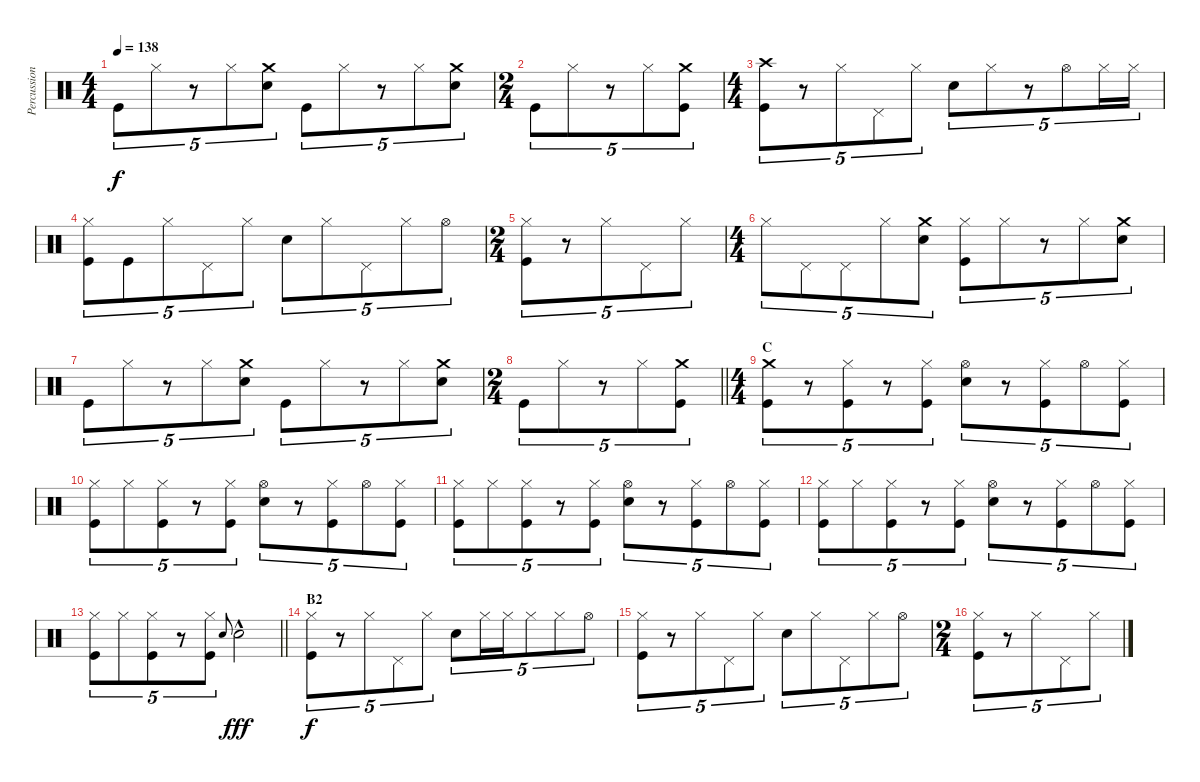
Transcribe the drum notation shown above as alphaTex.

\track ("Percussion" "Percussion") {instrument percussion}
\staff {score}
\articulation defaults
\ts (4 4)
\tempo 138
\clef neutral
\ks c "Kick (hit)".8{tu (5 4) dy f} "Hi-Hat (closed)".8{tu (5 4)}
r.8{tu (5 4)} "Hi-Hat (closed)".8{tu (5 4)} ("Snare (hit) 2" "Crash medium (hit)").8{tu (5 4)} "Kick (hit)".8{tu (5 4)} "Hi-Hat (closed)".8{tu (5 4)} r.8{tu (5 4)} "Hi-Hat (closed)".8{tu (5 4)} ("Snare (hit) 2" "Crash medium (hit)").8{tu (5 4)} |
\ts (2 4)
"Kick (hit)".8{tu (5 4)} "Hi-Hat (closed)".8{tu (5 4)} r.8{tu (5 4)} "Hi-Hat (closed)".8{tu (5 4)} ("Kick (hit)" "Crash medium (hit)").8{tu (5 4)} |
\ts (4 4)
("Kick (hit)" "Crash high (hit)").8{tu (5 4)} r.8{tu (5 4)} "Hi-Hat (closed)".8{tu (5 4)} "Pedal Hi-Hat (hit)".8{tu (5 4)} "Hi-Hat (closed)".8{tu (5 4)} "Snare (hit) 2".8{tu (5 4)} "Hi-Hat (closed)".8{tu (5 4)} r.8{tu (5 4)} "Hi-Hat (open)".8{tu (5 4)} "Hi-Hat (closed)".16{tu (5 4)} "Hi-Hat (closed)".16{tu (5 4)} |
("Kick (hit)" "Hi-Hat (closed)").8{tu (5 4)} "Kick (hit)".8{tu (5 4)} "Hi-Hat (closed)".8{tu (5 4)} "Pedal Hi-Hat (hit)".8{tu (5 4)} "Hi-Hat (closed)".8{tu (5 4)} "Snare (hit) 2".8{tu (5 4)} "Hi-Hat (closed)".8{tu (5 4)} "Pedal Hi-Hat (hit)".8{tu (5 4)} "Hi-Hat (closed)".8{tu (5 4)} "Hi-Hat (open)".8{tu (5 4)} |
\ts (2 4)
("Kick (hit)" "Hi-Hat (closed)").8{tu (5 4)} r.8{tu (5 4)} "Hi-Hat (closed)".8{tu (5 4)} "Pedal Hi-Hat (hit)".8{tu (5 4)} "Hi-Hat (closed)".8{tu (5 4)} |
\ts (4 4)
"Hi-Hat (closed)".8{tu (5 4)} "Pedal Hi-Hat (hit)".8{tu (5 4)} "Pedal Hi-Hat (hit)".8{tu (5 4)} "Hi-Hat (closed)".8{tu (5 4)} ("Snare (hit) 2" "Crash medium (hit)").8{tu (5 4)} ("Kick (hit)" "Hi-Hat (closed)").8{tu (5 4)} "Hi-Hat (closed)".8{tu (5 4)} r.8{tu (5 4)} "Hi-Hat (closed)".8{tu (5 4)} ("Snare (hit) 2" "Crash medium (hit)").8{tu (5 4)} |
"Kick (hit)".8{tu (5 4)} "Hi-Hat (closed)".8{tu (5 4)} r.8{tu (5 4)} "Hi-Hat (closed)".8{tu (5 4)} ("Snare (hit) 2" "Crash medium (hit)").8{tu (5 4)} "Kick (hit)".8{tu (5 4)} "Hi-Hat (closed)".8{tu (5 4)} r.8{tu (5 4)} "Hi-Hat (closed)".8{tu (5 4)} ("Snare (hit) 2" "Crash medium (hit)").8{tu (5 4)} |
\ts (2 4)
\barLineRight lightlight "Kick (hit)".8{tu (5 4)} "Hi-Hat (closed)".8{tu (5 4)}
r.8{tu (5 4)} "Hi-Hat (closed)".8{tu (5 4)} ("Kick (hit)" "Crash medium (hit)").8{tu (5 4)} |
\ts (4 4)
\section ("" "C")
("Kick (hit)" "Crash medium (hit)").8{tu (5 4)} r.8{tu (5 4)} ("Kick (hit)" "Hi-Hat (closed)").8{tu (5 4)} r.8{tu (5 4)} ("Kick (hit)" "Hi-Hat (closed)").8{tu (5 4)} ("Snare (hit) 2" "Hi-Hat (open)").8{tu (5 4)} r.8{tu (5 4)} ("Kick (hit)" "Hi-Hat (closed)").8{tu (5 4)} "Hi-Hat (open)".8{tu (5 4)} ("Kick (hit)" "Hi-Hat (closed)").8{tu (5 4)} |
("Kick (hit)" "Hi-Hat (closed)").8{tu (5 4)} "Hi-Hat (closed)".8{tu (5 4)} ("Kick (hit)" "Hi-Hat (closed)").8{tu (5 4)} r.8{tu (5 4)} ("Kick (hit)" "Hi-Hat (closed)").8{tu (5 4)} ("Snare (hit) 2" "Hi-Hat (open)").8{tu (5 4)} r.8{tu (5 4)} ("Kick (hit)" "Hi-Hat (closed)").8{tu (5 4)} "Hi-Hat (open)".8{tu (5 4)} ("Kick (hit)" "Hi-Hat (closed)").8{tu (5 4)} |
("Kick (hit)" "Hi-Hat (closed)").8{tu (5 4)} "Hi-Hat (closed)".8{tu (5 4)} ("Kick (hit)" "Hi-Hat (closed)").8{tu (5 4)} r.8{tu (5 4)} ("Kick (hit)" "Hi-Hat (closed)").8{tu (5 4)} ("Snare (hit) 2" "Hi-Hat (open)").8{tu (5 4)} r.8{tu (5 4)} ("Kick (hit)" "Hi-Hat (closed)").8{tu (5 4)} "Hi-Hat (open)".8{tu (5 4)} ("Kick (hit)" "Hi-Hat (closed)").8{tu (5 4)} |
("Kick (hit)" "Hi-Hat (closed)").8{tu (5 4)} "Hi-Hat (closed)".8{tu (5 4)} ("Kick (hit)" "Hi-Hat (closed)").8{tu (5 4)} r.8{tu (5 4)} ("Kick (hit)" "Hi-Hat (closed)").8{tu (5 4)} ("Snare (hit) 2" "Hi-Hat (open)").8{tu (5 4)} r.8{tu (5 4)} ("Kick (hit)" "Hi-Hat (closed)").8{tu (5 4)} "Hi-Hat (open)".8{tu (5 4)} ("Kick (hit)" "Hi-Hat (closed)").8{tu (5 4)} |
\barLineRight lightlight
("Kick (hit)" "Hi-Hat (closed)").8{tu (5 4)} "Hi-Hat (closed)".8{tu (5 4)} ("Kick (hit)" "Hi-Hat (closed)").8{tu (5 4)} r.8{tu (5 4)} ("Kick (hit)" "Hi-Hat (closed)").8{tu (5 4)} "Snare (hit) 2".8{gr onbeat} "Snare (hit) 2"{hac}.2{dy fff} |
\section ("" "B2")
("Kick (hit)" "Hi-Hat (closed)").8{tu (5 4) dy f} r.8{tu (5 4)} "Hi-Hat (closed)".8{tu (5 4)} "Pedal Hi-Hat (hit)".8{tu (5 4)} "Hi-Hat (closed)".8{tu (5 4)} "Snare (hit) 2".8{tu (5 4)} "Hi-Hat (closed)".16{tu (5 4)} "Hi-Hat (closed)".16{tu (5 4)} "Hi-Hat (closed)".8{tu (5 4)} "Hi-Hat (closed)".8{tu (5 4)} "Hi-Hat (open)".8{tu (5 4)} |
("Kick (hit)" "Hi-Hat (closed)").8{tu (5 4)} r.8{tu (5 4)} "Hi-Hat (closed)".8{tu (5 4)} "Pedal Hi-Hat (hit)".8{tu (5 4)} "Hi-Hat (closed)".8{tu (5 4)} "Snare (hit) 2".8{tu (5 4)} "Hi-Hat (closed)".8{tu (5 4)} "Pedal Hi-Hat (hit)".8{tu (5 4)} "Hi-Hat (closed)".8{tu (5 4)} "Hi-Hat (open)".8{tu (5 4)} |
\ts (2 4)
("Kick (hit)" "Hi-Hat (closed)").8{tu (5 4)} r.8{tu (5 4)} "Hi-Hat (closed)".8{tu (5 4)} "Pedal Hi-Hat (hit)".8{tu (5 4)} "Hi-Hat (closed)".8{tu (5 4)}
